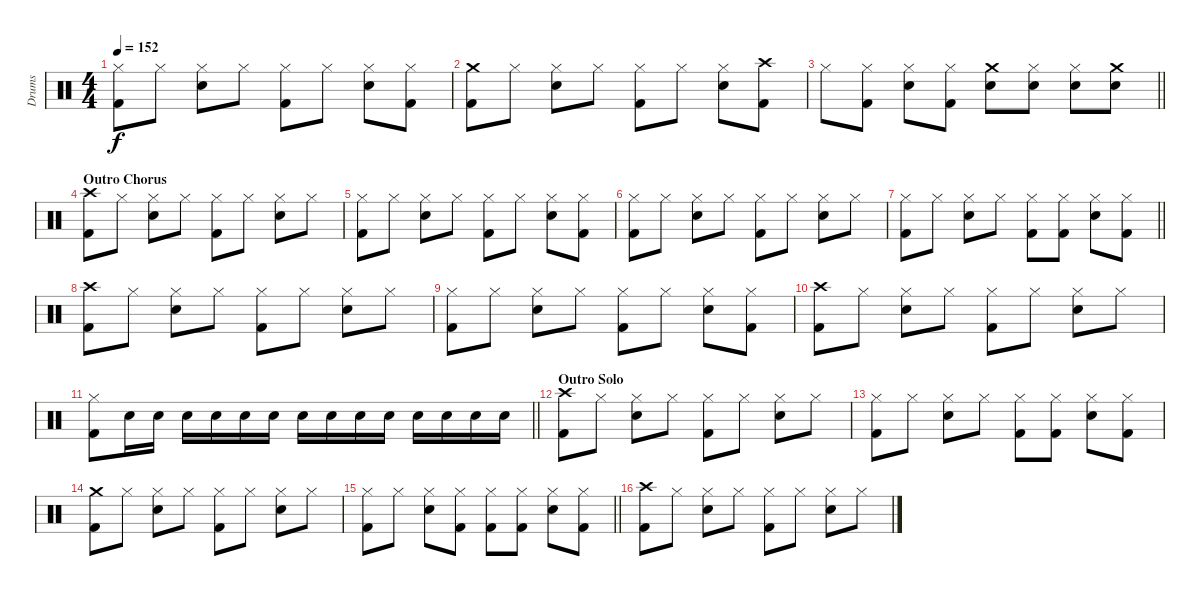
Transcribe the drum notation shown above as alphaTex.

\track ("Drums" "Drums") {instrument percussion}
\staff
\articulation defaults
\ts (4 4)
\tempo 152
\clef neutral
\ks c
("Hi-Hat (closed)" "Kick (hit) 2").8{dy f} "Hi-Hat (closed)".8 ("Hi-Hat (closed)" "Electric Snare (hit)").8 "Hi-Hat (closed)".8 ("Hi-Hat (closed)" "Kick (hit) 2").8 "Hi-Hat (closed)".8 ("Hi-Hat (closed)" "Electric Snare (hit)").8 ("Hi-Hat (closed)" "Kick (hit) 2").8 |
("Crash medium (hit)" "Kick (hit) 2").8 "Hi-Hat (closed)".8 ("Hi-Hat (closed)" "Electric Snare (hit)").8 "Hi-Hat (closed)".8 ("Hi-Hat (closed)" "Kick (hit) 2").8 "Hi-Hat (closed)".8 ("Hi-Hat (closed)" "Electric Snare (hit)").8 ("Crash high (hit)" "Kick (hit) 2").8 |
\barLineRight lightlight "Hi-Hat (closed)".8
("Hi-Hat (closed)" "Kick (hit) 2").8 ("Hi-Hat (closed)" "Electric Snare (hit)").8 ("Hi-Hat (closed)" "Kick (hit) 2").8 ("Crash medium (hit)" "Electric Snare (hit)").8 ("Hi-Hat (closed)" "Electric Snare (hit)").8 ("Hi-Hat (closed)" "Electric Snare (hit)").8 ("Crash medium (hit)" "Electric Snare (hit)").8 |
\section ("" "Outro Chorus")
("Crash high (hit)" "Kick (hit) 2").8 "Hi-Hat (closed)".8 ("Hi-Hat (closed)" "Electric Snare (hit)").8 "Hi-Hat (closed)".8 ("Hi-Hat (closed)" "Kick (hit) 2").8 "Hi-Hat (closed)".8 ("Hi-Hat (closed)" "Electric Snare (hit)").8 "Hi-Hat (closed)".8 |
("Hi-Hat (closed)" "Kick (hit) 2").8 "Hi-Hat (closed)".8 ("Hi-Hat (closed)" "Electric Snare (hit)").8 "Hi-Hat (closed)".8 ("Hi-Hat (closed)" "Kick (hit) 2").8 "Hi-Hat (closed)".8 ("Hi-Hat (closed)" "Electric Snare (hit)").8 ("Hi-Hat (closed)" "Kick (hit) 2").8 |
("Hi-Hat (closed)" "Kick (hit) 2").8 "Hi-Hat (closed)".8 ("Hi-Hat (closed)" "Electric Snare (hit)").8 "Hi-Hat (closed)".8 ("Hi-Hat (closed)" "Kick (hit) 2").8 "Hi-Hat (closed)".8 ("Hi-Hat (closed)" "Electric Snare (hit)").8 "Hi-Hat (closed)".8 |
\barLineRight lightlight
("Hi-Hat (closed)" "Kick (hit) 2").8 "Hi-Hat (closed)".8 ("Hi-Hat (closed)" "Electric Snare (hit)").8 "Hi-Hat (closed)".8 ("Hi-Hat (closed)" "Kick (hit) 2").8 ("Hi-Hat (closed)" "Kick (hit) 2").8 ("Hi-Hat (closed)" "Electric Snare (hit)").8 ("Hi-Hat (closed)" "Kick (hit) 2").8 |
("Crash high (hit)" "Kick (hit) 2").8 "Hi-Hat (closed)".8 ("Hi-Hat (closed)" "Electric Snare (hit)").8 "Hi-Hat (closed)".8 ("Hi-Hat (closed)" "Kick (hit) 2").8 "Hi-Hat (closed)".8 ("Hi-Hat (closed)" "Electric Snare (hit)").8 "Hi-Hat (closed)".8 |
("Hi-Hat (closed)" "Kick (hit) 2").8 "Hi-Hat (closed)".8 ("Hi-Hat (closed)" "Electric Snare (hit)").8 "Hi-Hat (closed)".8 ("Hi-Hat (closed)" "Kick (hit) 2").8 "Hi-Hat (closed)".8 ("Hi-Hat (closed)" "Electric Snare (hit)").8 ("Hi-Hat (closed)" "Kick (hit) 2").8 |
("Crash high (hit)" "Kick (hit) 2").8 "Hi-Hat (closed)".8 ("Hi-Hat (closed)" "Electric Snare (hit)").8 "Hi-Hat (closed)".8 ("Hi-Hat (closed)" "Kick (hit) 2").8 "Hi-Hat (closed)".8 ("Hi-Hat (closed)" "Electric Snare (hit)").8 "Hi-Hat (closed)".8 |
\barLineRight lightlight
("Hi-Hat (closed)" "Kick (hit) 2").8 "Electric Snare (hit)".16 "Electric Snare (hit)".16 "Electric Snare (hit)".16 "Electric Snare (hit)".16 "Electric Snare (hit)".16 "Electric Snare (hit)".16 "Electric Snare (hit)".16 "Electric Snare (hit)".16 "Electric Snare (hit)".16 "Electric Snare (hit)".16 "Electric Snare (hit)".16 "Electric Snare (hit)".16 "Electric Snare (hit)".16 "Electric Snare (hit)".16 |
\section ("" "Outro Solo")
("Crash high (hit)" "Kick (hit) 2").8 "Hi-Hat (closed)".8 ("Hi-Hat (closed)" "Electric Snare (hit)").8 "Hi-Hat (closed)".8 ("Hi-Hat (closed)" "Kick (hit) 2").8 "Hi-Hat (closed)".8 ("Hi-Hat (closed)" "Electric Snare (hit)").8 "Hi-Hat (closed)".8 |
("Hi-Hat (closed)" "Kick (hit) 2").8 "Hi-Hat (closed)".8 ("Hi-Hat (closed)" "Electric Snare (hit)").8 "Hi-Hat (closed)".8 ("Hi-Hat (closed)" "Kick (hit) 2").8 ("Hi-Hat (closed)" "Kick (hit) 2").8 ("Hi-Hat (closed)" "Electric Snare (hit)").8 ("Hi-Hat (closed)" "Kick (hit) 2").8 |
("Crash medium (hit)" "Kick (hit) 2").8 "Hi-Hat (closed)".8 ("Hi-Hat (closed)" "Electric Snare (hit)").8 "Hi-Hat (closed)".8 ("Hi-Hat (closed)" "Kick (hit) 2").8 "Hi-Hat (closed)".8 ("Hi-Hat (closed)" "Electric Snare (hit)").8 "Hi-Hat (closed)".8 |
\barLineRight lightlight
("Hi-Hat (closed)" "Kick (hit) 2").8 "Hi-Hat (closed)".8 ("Hi-Hat (closed)" "Electric Snare (hit)").8 ("Hi-Hat (closed)" "Kick (hit) 2").8 ("Hi-Hat (closed)" "Kick (hit) 2").8 ("Hi-Hat (closed)" "Kick (hit) 2").8 ("Hi-Hat (closed)" "Electric Snare (hit)").8 ("Hi-Hat (closed)" "Kick (hit) 2").8 |
("Crash high (hit)" "Kick (hit) 2").8 "Hi-Hat (closed)".8 ("Hi-Hat (closed)" "Electric Snare (hit)").8 "Hi-Hat (closed)".8 ("Hi-Hat (closed)" "Kick (hit) 2").8 "Hi-Hat (closed)".8 ("Hi-Hat (closed)" "Electric Snare (hit)").8 "Hi-Hat (closed)".8
